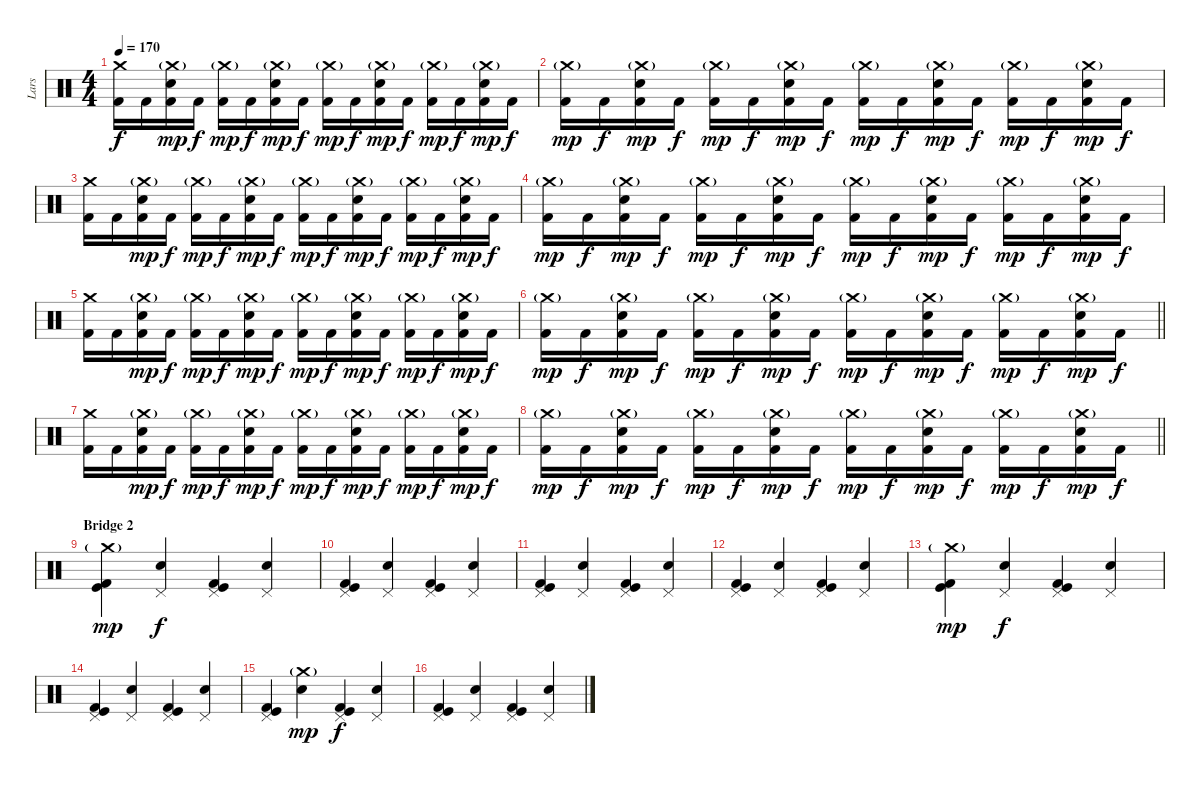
\track ("Lars" "Lars") {instrument percussion}
\staff {score}
\articulation defaults
\ts (4 4)
\tempo 170
\clef neutral
\ks c
("Crash medium (hit)" "Kick (hit) 2").16{dy f} "Kick (hit) 2".16 ("Crash medium (hit)"{g} "Electric Snare (hit)" "Kick (hit) 2").16{dy mp} "Kick (hit) 2".16{dy f} ("Crash medium (hit)"{g} "Kick (hit) 2").16{dy mp} "Kick (hit) 2".16{dy f} ("Crash medium (hit)"{g} "Electric Snare (hit)" "Kick (hit) 2").16{dy mp} "Kick (hit) 2".16{dy f} ("Crash medium (hit)"{g} "Kick (hit) 2").16{dy mp} "Kick (hit) 2".16{dy f} ("Crash medium (hit)"{g} "Electric Snare (hit)" "Kick (hit) 2").16{dy mp} "Kick (hit) 2".16{dy f} ("Crash medium (hit)"{g} "Kick (hit) 2").16{dy mp} "Kick (hit) 2".16{dy f} ("Crash medium (hit)"{g} "Electric Snare (hit)" "Kick (hit) 2").16{dy mp} "Kick (hit) 2".16{dy f} |
("Crash medium (hit)"{g} "Kick (hit) 2").16{dy mp} "Kick (hit) 2".16{dy f} ("Crash medium (hit)"{g} "Electric Snare (hit)" "Kick (hit) 2").16{dy mp} "Kick (hit) 2".16{dy f} ("Crash medium (hit)"{g} "Kick (hit) 2").16{dy mp} "Kick (hit) 2".16{dy f} ("Crash medium (hit)"{g} "Electric Snare (hit)" "Kick (hit) 2").16{dy mp} "Kick (hit) 2".16{dy f} ("Crash medium (hit)"{g} "Kick (hit) 2").16{dy mp} "Kick (hit) 2".16{dy f} ("Crash medium (hit)"{g} "Electric Snare (hit)" "Kick (hit) 2").16{dy mp} "Kick (hit) 2".16{dy f} ("Crash medium (hit)"{g} "Kick (hit) 2").16{dy mp} "Kick (hit) 2".16{dy f} ("Crash medium (hit)"{g} "Electric Snare (hit)" "Kick (hit) 2").16{dy mp} "Kick (hit) 2".16{dy f} |
("Crash medium (hit)" "Kick (hit) 2").16 "Kick (hit) 2".16 ("Crash medium (hit)"{g} "Electric Snare (hit)" "Kick (hit) 2").16{dy mp} "Kick (hit) 2".16{dy f} ("Crash medium (hit)"{g} "Kick (hit) 2").16{dy mp} "Kick (hit) 2".16{dy f} ("Crash medium (hit)"{g} "Electric Snare (hit)" "Kick (hit) 2").16{dy mp} "Kick (hit) 2".16{dy f} ("Crash medium (hit)"{g} "Kick (hit) 2").16{dy mp} "Kick (hit) 2".16{dy f} ("Crash medium (hit)"{g} "Electric Snare (hit)" "Kick (hit) 2").16{dy mp} "Kick (hit) 2".16{dy f} ("Crash medium (hit)"{g} "Kick (hit) 2").16{dy mp} "Kick (hit) 2".16{dy f} ("Crash medium (hit)"{g} "Electric Snare (hit)" "Kick (hit) 2").16{dy mp} "Kick (hit) 2".16{dy f} |
("Crash medium (hit)"{g} "Kick (hit) 2").16{dy mp} "Kick (hit) 2".16{dy f} ("Crash medium (hit)"{g} "Electric Snare (hit)" "Kick (hit) 2").16{dy mp} "Kick (hit) 2".16{dy f} ("Crash medium (hit)"{g} "Kick (hit) 2").16{dy mp} "Kick (hit) 2".16{dy f} ("Crash medium (hit)"{g} "Electric Snare (hit)" "Kick (hit) 2").16{dy mp} "Kick (hit) 2".16{dy f} ("Crash medium (hit)"{g} "Kick (hit) 2").16{dy mp} "Kick (hit) 2".16{dy f} ("Crash medium (hit)"{g} "Electric Snare (hit)" "Kick (hit) 2").16{dy mp} "Kick (hit) 2".16{dy f} ("Crash medium (hit)"{g} "Kick (hit) 2").16{dy mp} "Kick (hit) 2".16{dy f} ("Crash medium (hit)"{g} "Electric Snare (hit)" "Kick (hit) 2").16{dy mp} "Kick (hit) 2".16{dy f} |
("Crash medium (hit)" "Kick (hit) 2").16 "Kick (hit) 2".16 ("Crash medium (hit)"{g} "Electric Snare (hit)" "Kick (hit) 2").16{dy mp} "Kick (hit) 2".16{dy f} ("Crash medium (hit)"{g} "Kick (hit) 2").16{dy mp} "Kick (hit) 2".16{dy f} ("Crash medium (hit)"{g} "Electric Snare (hit)" "Kick (hit) 2").16{dy mp} "Kick (hit) 2".16{dy f} ("Crash medium (hit)"{g} "Kick (hit) 2").16{dy mp} "Kick (hit) 2".16{dy f} ("Crash medium (hit)"{g} "Electric Snare (hit)" "Kick (hit) 2").16{dy mp} "Kick (hit) 2".16{dy f} ("Crash medium (hit)"{g} "Kick (hit) 2").16{dy mp} "Kick (hit) 2".16{dy f} ("Crash medium (hit)"{g} "Electric Snare (hit)" "Kick (hit) 2").16{dy mp} "Kick (hit) 2".16{dy f} |
\barLineRight lightlight
("Crash medium (hit)"{g} "Kick (hit) 2").16{dy mp} "Kick (hit) 2".16{dy f} ("Crash medium (hit)"{g} "Electric Snare (hit)" "Kick (hit) 2").16{dy mp} "Kick (hit) 2".16{dy f} ("Crash medium (hit)"{g} "Kick (hit) 2").16{dy mp} "Kick (hit) 2".16{dy f} ("Crash medium (hit)"{g} "Electric Snare (hit)" "Kick (hit) 2").16{dy mp} "Kick (hit) 2".16{dy f} ("Crash medium (hit)"{g} "Kick (hit) 2").16{dy mp} "Kick (hit) 2".16{dy f} ("Crash medium (hit)"{g} "Electric Snare (hit)" "Kick (hit) 2").16{dy mp} "Kick (hit) 2".16{dy f} ("Crash medium (hit)"{g} "Kick (hit) 2").16{dy mp} "Kick (hit) 2".16{dy f} ("Crash medium (hit)"{g} "Electric Snare (hit)" "Kick (hit) 2").16{dy mp} "Kick (hit) 2".16{dy f} |
("Crash medium (hit)" "Kick (hit) 2").16 "Kick (hit) 2".16 ("Crash medium (hit)"{g} "Electric Snare (hit)" "Kick (hit) 2").16{dy mp} "Kick (hit) 2".16{dy f} ("Crash medium (hit)"{g} "Kick (hit) 2").16{dy mp} "Kick (hit) 2".16{dy f} ("Crash medium (hit)"{g} "Electric Snare (hit)" "Kick (hit) 2").16{dy mp} "Kick (hit) 2".16{dy f} ("Crash medium (hit)"{g} "Kick (hit) 2").16{dy mp} "Kick (hit) 2".16{dy f} ("Crash medium (hit)"{g} "Electric Snare (hit)" "Kick (hit) 2").16{dy mp} "Kick (hit) 2".16{dy f} ("Crash medium (hit)"{g} "Kick (hit) 2").16{dy mp} "Kick (hit) 2".16{dy f} ("Crash medium (hit)"{g} "Electric Snare (hit)" "Kick (hit) 2").16{dy mp} "Kick (hit) 2".16{dy f} |
\barLineRight lightlight
("Crash medium (hit)"{g} "Kick (hit) 2").16{dy mp} "Kick (hit) 2".16{dy f} ("Crash medium (hit)"{g} "Electric Snare (hit)" "Kick (hit) 2").16{dy mp} "Kick (hit) 2".16{dy f} ("Crash medium (hit)"{g} "Kick (hit) 2").16{dy mp} "Kick (hit) 2".16{dy f} ("Crash medium (hit)"{g} "Electric Snare (hit)" "Kick (hit) 2").16{dy mp} "Kick (hit) 2".16{dy f} ("Crash medium (hit)"{g} "Kick (hit) 2").16{dy mp} "Kick (hit) 2".16{dy f} ("Crash medium (hit)"{g} "Electric Snare (hit)" "Kick (hit) 2").16{dy mp} "Kick (hit) 2".16{dy f} ("Crash medium (hit)"{g} "Kick (hit) 2").16{dy mp} "Kick (hit) 2".16{dy f} ("Crash medium (hit)"{g} "Electric Snare (hit)" "Kick (hit) 2").16{dy mp} "Kick (hit) 2".16{dy f} |
\section ("" "Bridge 2")
("Crash medium (hit)"{g} "Kick (hit)" "Kick (hit) 2").4{dy mp} ("Pedal Hi-Hat (hit)" "Electric Snare (hit)").4{dy f} ("Pedal Hi-Hat (hit)" "Kick (hit)" "Kick (hit) 2").4 ("Pedal Hi-Hat (hit)" "Electric Snare (hit)").4 |
("Pedal Hi-Hat (hit)" "Kick (hit)" "Kick (hit) 2").4 ("Pedal Hi-Hat (hit)" "Electric Snare (hit)").4 ("Pedal Hi-Hat (hit)" "Kick (hit)" "Kick (hit) 2").4 ("Pedal Hi-Hat (hit)" "Electric Snare (hit)").4 |
("Pedal Hi-Hat (hit)" "Kick (hit)" "Kick (hit) 2").4 ("Pedal Hi-Hat (hit)" "Electric Snare (hit)").4 ("Pedal Hi-Hat (hit)" "Kick (hit)" "Kick (hit) 2").4 ("Pedal Hi-Hat (hit)" "Electric Snare (hit)").4 |
("Pedal Hi-Hat (hit)" "Kick (hit)" "Kick (hit) 2").4 ("Pedal Hi-Hat (hit)" "Electric Snare (hit)").4 ("Pedal Hi-Hat (hit)" "Kick (hit)" "Kick (hit) 2").4 ("Pedal Hi-Hat (hit)" "Electric Snare (hit)").4 |
("Crash medium (hit)"{g} "Kick (hit)" "Kick (hit) 2").4{dy mp} ("Pedal Hi-Hat (hit)" "Electric Snare (hit)").4{dy f} ("Pedal Hi-Hat (hit)" "Kick (hit)" "Kick (hit) 2").4 ("Pedal Hi-Hat (hit)" "Electric Snare (hit)").4 |
("Pedal Hi-Hat (hit)" "Kick (hit)" "Kick (hit) 2").4 ("Pedal Hi-Hat (hit)" "Electric Snare (hit)").4 ("Pedal Hi-Hat (hit)" "Kick (hit)" "Kick (hit) 2").4 ("Pedal Hi-Hat (hit)" "Electric Snare (hit)").4 |
("Pedal Hi-Hat (hit)" "Kick (hit)" "Kick (hit) 2").4 ("Crash medium (hit)"{g} "Electric Snare (hit)").4{dy mp} ("Pedal Hi-Hat (hit)" "Kick (hit)" "Kick (hit) 2").4{dy f} ("Pedal Hi-Hat (hit)" "Electric Snare (hit)").4 |
("Pedal Hi-Hat (hit)" "Kick (hit)" "Kick (hit) 2").4 ("Pedal Hi-Hat (hit)" "Electric Snare (hit)").4 ("Pedal Hi-Hat (hit)" "Kick (hit)" "Kick (hit) 2").4 ("Pedal Hi-Hat (hit)" "Electric Snare (hit)").4
